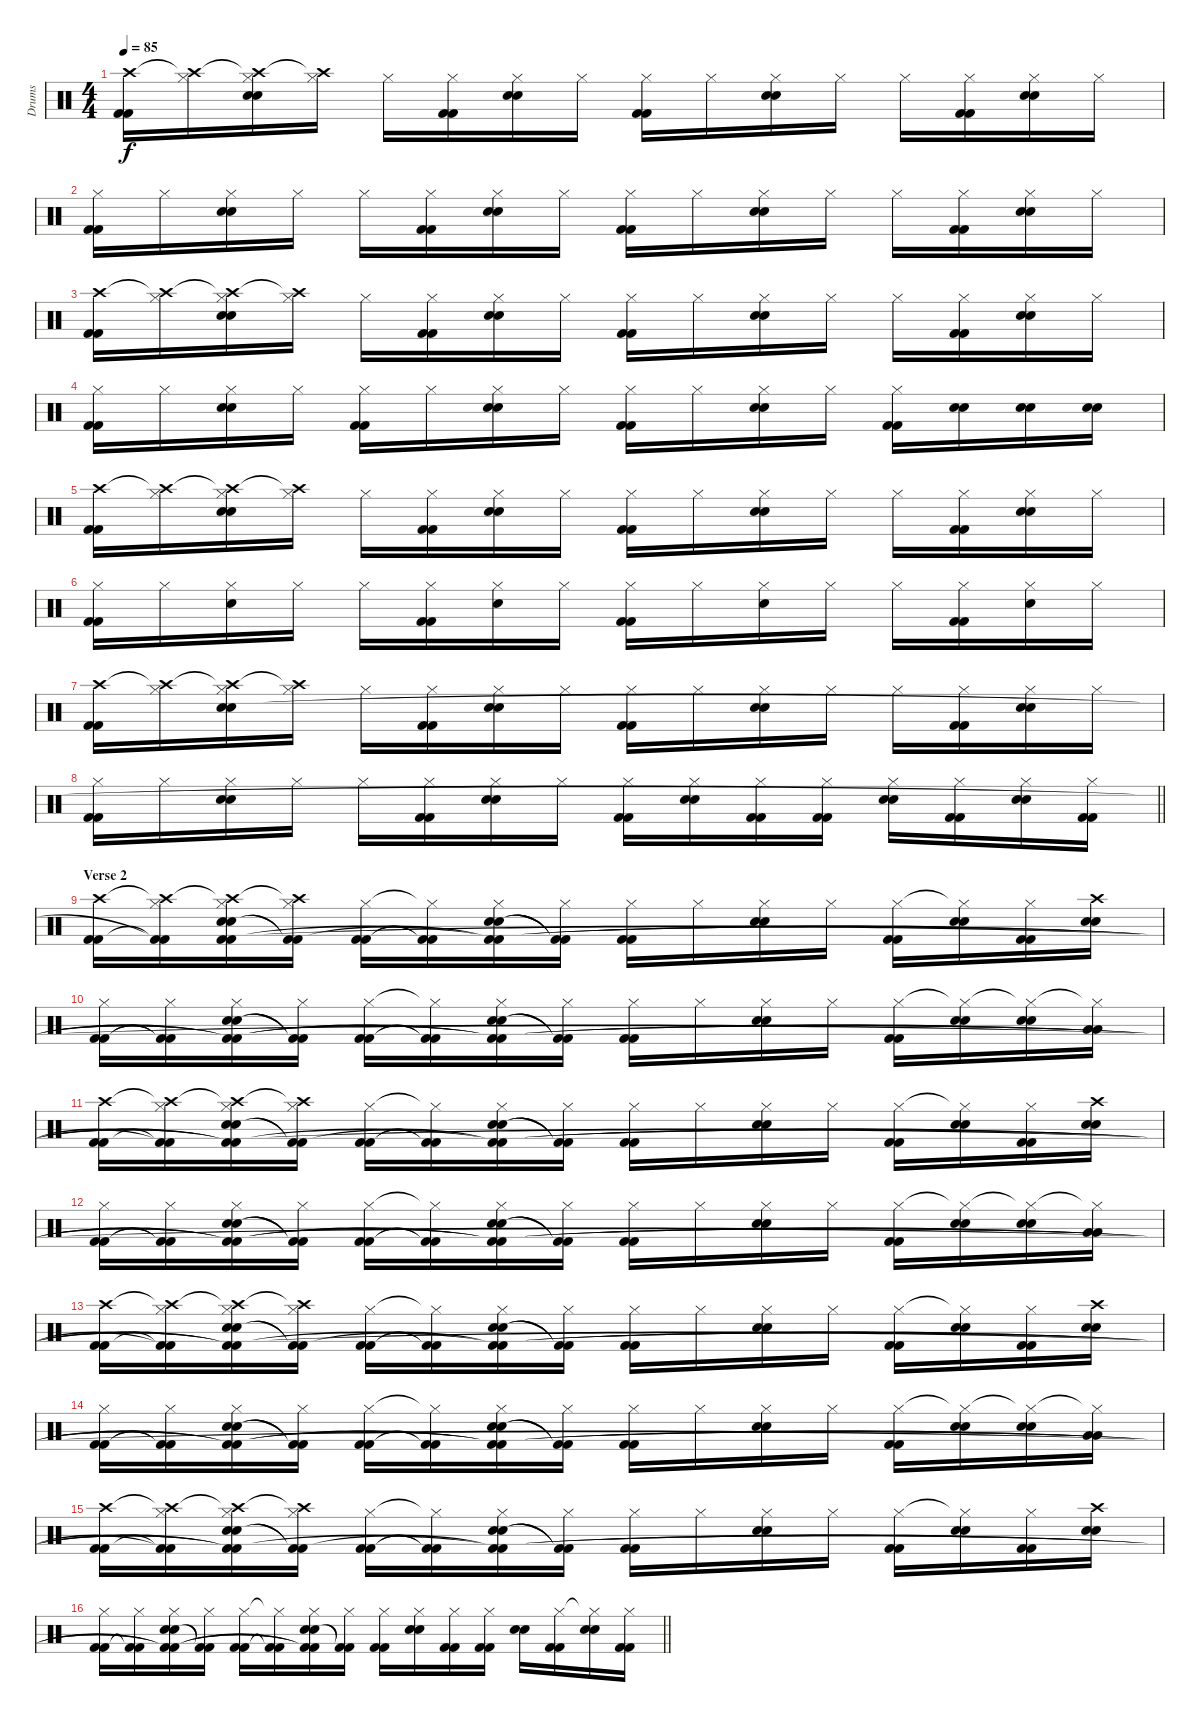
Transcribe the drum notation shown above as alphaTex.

\track ("Drums" "Drums") {instrument percussion}
\staff {score}
\articulation defaults
\ts (4 4)
\tempo 85
\clef neutral
\ks c
("Crash high (hit)" "Kick (hit) 2" "Kick (hit) 2").16{dy f} ("Crash high (hit)"{t} "Hi-Hat (closed)").16 ("Crash high (hit)"{t} "Hi-Hat (closed)" "Snare (hit) 2" "Snare (hit) 2").16 ("Crash high (hit)"{t} "Hi-Hat (closed)").16 "Hi-Hat (closed)".16 ("Hi-Hat (closed)" "Kick (hit) 2" "Kick (hit) 2").16 ("Hi-Hat (closed)" "Snare (hit) 2" "Snare (hit) 2").16 "Hi-Hat (closed)".16 ("Hi-Hat (closed)" "Kick (hit) 2" "Kick (hit) 2").16 "Hi-Hat (closed)".16 ("Hi-Hat (closed)" "Snare (hit) 2" "Snare (hit) 2").16 "Hi-Hat (closed)".16 "Hi-Hat (closed)".16 ("Hi-Hat (closed)" "Kick (hit) 2" "Kick (hit) 2").16 ("Hi-Hat (closed)" "Snare (hit) 2" "Snare (hit) 2").16 "Hi-Hat (closed)".16 |
("Hi-Hat (closed)" "Kick (hit) 2" "Kick (hit) 2").16 "Hi-Hat (closed)".16 ("Hi-Hat (closed)" "Snare (hit) 2" "Snare (hit) 2").16 "Hi-Hat (closed)".16 "Hi-Hat (closed)".16 ("Hi-Hat (closed)" "Kick (hit) 2" "Kick (hit) 2").16 ("Hi-Hat (closed)" "Snare (hit) 2" "Snare (hit) 2").16 "Hi-Hat (closed)".16 ("Hi-Hat (closed)" "Kick (hit) 2" "Kick (hit) 2").16 "Hi-Hat (closed)".16 ("Hi-Hat (closed)" "Snare (hit) 2" "Snare (hit) 2").16 "Hi-Hat (closed)".16 "Hi-Hat (closed)".16 ("Hi-Hat (closed)" "Kick (hit) 2" "Kick (hit) 2").16 ("Hi-Hat (closed)" "Snare (hit) 2" "Snare (hit) 2").16 "Hi-Hat (closed)".16 |
("Crash high (hit)" "Kick (hit) 2" "Kick (hit) 2").16 ("Crash high (hit)"{t} "Hi-Hat (closed)").16 ("Crash high (hit)"{t} "Hi-Hat (closed)" "Snare (hit) 2" "Snare (hit) 2").16 ("Crash high (hit)"{t} "Hi-Hat (closed)").16 "Hi-Hat (closed)".16 ("Hi-Hat (closed)" "Kick (hit) 2" "Kick (hit) 2").16 ("Hi-Hat (closed)" "Snare (hit) 2" "Snare (hit) 2").16 "Hi-Hat (closed)".16 ("Hi-Hat (closed)" "Kick (hit) 2" "Kick (hit) 2").16 "Hi-Hat (closed)".16 ("Hi-Hat (closed)" "Snare (hit) 2" "Snare (hit) 2").16 "Hi-Hat (closed)".16 "Hi-Hat (closed)".16 ("Hi-Hat (closed)" "Kick (hit) 2" "Kick (hit) 2").16 ("Hi-Hat (closed)" "Snare (hit) 2" "Snare (hit) 2").16 "Hi-Hat (closed)".16 |
("Hi-Hat (closed)" "Kick (hit) 2" "Kick (hit) 2").16 "Hi-Hat (closed)".16 ("Hi-Hat (closed)" "Snare (hit) 2" "Snare (hit) 2").16 "Hi-Hat (closed)".16 ("Hi-Hat (closed)" "Kick (hit) 2" "Kick (hit) 2").16 "Hi-Hat (closed)".16 ("Hi-Hat (closed)" "Snare (hit) 2" "Snare (hit) 2").16 "Hi-Hat (closed)".16 ("Hi-Hat (closed)" "Kick (hit) 2" "Kick (hit) 2").16 "Hi-Hat (closed)".16 ("Hi-Hat (closed)" "Snare (hit) 2" "Snare (hit) 2").16 "Hi-Hat (closed)".16 ("Hi-Hat (closed)" "Kick (hit) 2" "Kick (hit) 2").16 ("Snare (hit) 2" "Snare (hit) 2").16 ("Snare (hit) 2" "Snare (hit) 2").16 ("Snare (hit) 2" "Snare (hit) 2").16 |
("Crash high (hit)" "Kick (hit) 2" "Kick (hit) 2").16 ("Crash high (hit)"{t} "Hi-Hat (closed)").16 ("Crash high (hit)"{t} "Hi-Hat (closed)" "Snare (hit) 2" "Snare (hit) 2").16 ("Crash high (hit)"{t} "Hi-Hat (closed)").16 "Hi-Hat (closed)".16 ("Hi-Hat (closed)" "Kick (hit) 2" "Kick (hit) 2").16 ("Hi-Hat (closed)" "Snare (hit) 2" "Snare (hit) 2").16 "Hi-Hat (closed)".16 ("Hi-Hat (closed)" "Kick (hit) 2" "Kick (hit) 2").16 "Hi-Hat (closed)".16 ("Hi-Hat (closed)" "Snare (hit) 2" "Snare (hit) 2").16 "Hi-Hat (closed)".16 "Hi-Hat (closed)".16 ("Hi-Hat (closed)" "Kick (hit) 2" "Kick (hit) 2").16 ("Hi-Hat (closed)" "Snare (hit) 2" "Snare (hit) 2").16 "Hi-Hat (closed)".16 |
("Hi-Hat (closed)" "Kick (hit) 2" "Kick (hit) 2").16 "Hi-Hat (closed)".16 ("Hi-Hat (closed)" "Snare (hit) 2").16 "Hi-Hat (closed)".16 "Hi-Hat (closed)".16 ("Hi-Hat (closed)" "Kick (hit) 2" "Kick (hit) 2").16 ("Hi-Hat (closed)" "Snare (hit) 2").16 "Hi-Hat (closed)".16 ("Hi-Hat (closed)" "Kick (hit) 2" "Kick (hit) 2").16 "Hi-Hat (closed)".16 ("Hi-Hat (closed)" "Snare (hit) 2").16 "Hi-Hat (closed)".16 "Hi-Hat (closed)".16 ("Hi-Hat (closed)" "Kick (hit) 2" "Kick (hit) 2").16 ("Hi-Hat (closed)" "Snare (hit) 2").16 "Hi-Hat (closed)".16 |
("Crash high (hit)" "Kick (hit) 2" "Kick (hit) 2").16 ("Crash high (hit)"{t} "Hi-Hat (closed)").16 ("Crash high (hit)"{t} "Hi-Hat (closed)" "Snare (hit) 2" "Snare (hit) 2").16 ("Crash high (hit)"{t} "Hi-Hat (closed)").16 "Hi-Hat (closed)".16 ("Hi-Hat (closed)" "Kick (hit) 2" "Kick (hit) 2").16 ("Hi-Hat (closed)" "Snare (hit) 2" "Snare (hit) 2").16 "Hi-Hat (closed)".16 ("Hi-Hat (closed)" "Kick (hit) 2" "Kick (hit) 2").16 "Hi-Hat (closed)".16 ("Hi-Hat (closed)" "Snare (hit) 2" "Snare (hit) 2").16 "Hi-Hat (closed)".16 "Hi-Hat (closed)".16 ("Hi-Hat (closed)" "Kick (hit) 2" "Kick (hit) 2").16 ("Hi-Hat (closed)" "Snare (hit) 2" "Snare (hit) 2").16 "Hi-Hat (closed)".16 |
\barLineRight lightlight
("Hi-Hat (closed)" "Kick (hit) 2" "Kick (hit) 2").16 "Hi-Hat (closed)".16 ("Hi-Hat (closed)" "Snare (hit) 2" "Snare (hit) 2").16 "Hi-Hat (closed)".16 "Hi-Hat (closed)".16 ("Hi-Hat (closed)" "Kick (hit) 2" "Kick (hit) 2").16 ("Hi-Hat (closed)" "Snare (hit) 2" "Snare (hit) 2").16 "Hi-Hat (closed)".16 ("Hi-Hat (closed)" "Kick (hit) 2" "Kick (hit) 2").16 ("Hi-Hat (closed)" "Snare (hit) 2" "Snare (hit) 2").16 ("Hi-Hat (closed)" "Kick (hit) 2" "Kick (hit) 2").16 ("Hi-Hat (closed)" "Kick (hit) 2" "Kick (hit) 2").16 ("Hi-Hat (closed)" "Snare (hit) 2" "Snare (hit) 2").16 ("Hi-Hat (closed)" "Kick (hit) 2" "Kick (hit) 2").16 ("Hi-Hat (closed)" "Snare (hit) 2" "Snare (hit) 2").16 ("Hi-Hat (closed)" "Kick (hit) 2" "Kick (hit) 2").16 |
\section ("" "Verse 2")
("Crash high (hit)" "Kick (hit) 2" "Kick (hit) 2").16 ("Crash high (hit)"{t} "Hi-Hat (closed)" "Kick (hit) 2"{t} "Kick (hit) 2"{t}).16 ("Crash high (hit)"{t} "Hi-Hat (closed)" "Snare (hit) 2" "Snare (hit) 2" "Kick (hit) 2" "Kick (hit) 2").16 ("Crash high (hit)"{t} "Hi-Hat (closed)" "Kick (hit) 2"{t} "Kick (hit) 2"{t}).16 ("Hi-Hat (closed)" "Kick (hit) 2" "Kick (hit) 2").16 ("Hi-Hat (closed)"{t} "Kick (hit) 2"{t} "Kick (hit) 2"{t}).16 ("Hi-Hat (closed)" "Snare (hit) 2" "Snare (hit) 2" "Kick (hit) 2"{t} "Kick (hit) 2"{t}).16 ("Hi-Hat (closed)" "Kick (hit) 2"{t} "Kick (hit) 2"{t}).16 ("Hi-Hat (closed)" "Kick (hit) 2" "Kick (hit) 2").16 "Hi-Hat (closed)".16 ("Hi-Hat (closed)" "Snare (hit) 2" "Snare (hit) 2").16 "Hi-Hat (closed)".16 ("Hi-Hat (closed)" "Kick (hit) 2" "Kick (hit) 2").16 ("Hi-Hat (closed)"{t} "Snare (hit) 2" "Snare (hit) 2").16 ("Hi-Hat (closed)" "Kick (hit) 2" "Kick (hit) 2").16 ("Crash high (hit)" "Snare (hit) 2" "Snare (hit) 2").16 |
("Hi-Hat (closed)" "Kick (hit) 2" "Kick (hit) 2").16 ("Hi-Hat (closed)" "Kick (hit) 2"{t} "Kick (hit) 2"{t}).16 ("Hi-Hat (closed)" "Snare (hit) 2" "Snare (hit) 2" "Kick (hit) 2"{t} "Kick (hit) 2"{t}).16 ("Hi-Hat (closed)" "Kick (hit) 2"{t} "Kick (hit) 2"{t}).16 ("Hi-Hat (closed)" "Kick (hit) 2" "Kick (hit) 2").16 ("Hi-Hat (closed)"{t} "Kick (hit) 2"{t} "Kick (hit) 2"{t}).16 ("Hi-Hat (closed)" "Snare (hit) 2" "Snare (hit) 2" "Kick (hit) 2"{t} "Kick (hit) 2"{t}).16 ("Hi-Hat (closed)" "Kick (hit) 2"{t} "Kick (hit) 2"{t}).16 ("Hi-Hat (closed)" "Kick (hit) 2" "Kick (hit) 2").16 "Hi-Hat (closed)".16 ("Hi-Hat (closed)" "Snare (hit) 2" "Snare (hit) 2").16 "Hi-Hat (closed)".16 ("Hi-Hat (closed)" "Kick (hit) 2" "Kick (hit) 2").16 ("Hi-Hat (closed)"{t} "Snare (hit) 2" "Snare (hit) 2").16 ("Hi-Hat (closed)"{t} "Snare (hit) 2" "Snare (hit) 2").16 ("Hi-Hat (closed)"{t} "Low Tom (hit)" "Low Tom (hit)").16 |
("Crash high (hit)" "Kick (hit) 2" "Kick (hit) 2").16 ("Crash high (hit)"{t} "Hi-Hat (closed)" "Kick (hit) 2"{t} "Kick (hit) 2"{t}).16 ("Crash high (hit)"{t} "Hi-Hat (closed)" "Snare (hit) 2" "Snare (hit) 2" "Kick (hit) 2"{t} "Kick (hit) 2"{t}).16 ("Crash high (hit)"{t} "Hi-Hat (closed)" "Kick (hit) 2"{t} "Kick (hit) 2"{t}).16 ("Hi-Hat (closed)" "Kick (hit) 2" "Kick (hit) 2").16 ("Hi-Hat (closed)"{t} "Kick (hit) 2"{t} "Kick (hit) 2"{t}).16 ("Hi-Hat (closed)" "Snare (hit) 2" "Snare (hit) 2" "Kick (hit) 2"{t} "Kick (hit) 2"{t}).16 ("Hi-Hat (closed)" "Kick (hit) 2"{t} "Kick (hit) 2"{t}).16 ("Hi-Hat (closed)" "Kick (hit) 2" "Kick (hit) 2").16 "Hi-Hat (closed)".16 ("Hi-Hat (closed)" "Snare (hit) 2" "Snare (hit) 2").16 "Hi-Hat (closed)".16 ("Hi-Hat (closed)" "Kick (hit) 2" "Kick (hit) 2").16 ("Hi-Hat (closed)"{t} "Snare (hit) 2" "Snare (hit) 2").16 ("Hi-Hat (closed)" "Kick (hit) 2" "Kick (hit) 2").16 ("Crash high (hit)" "Snare (hit) 2" "Snare (hit) 2").16 |
("Hi-Hat (closed)" "Kick (hit) 2" "Kick (hit) 2").16 ("Hi-Hat (closed)" "Kick (hit) 2"{t} "Kick (hit) 2"{t}).16 ("Hi-Hat (closed)" "Snare (hit) 2" "Snare (hit) 2" "Kick (hit) 2"{t} "Kick (hit) 2"{t}).16 ("Hi-Hat (closed)" "Kick (hit) 2"{t} "Kick (hit) 2"{t}).16 ("Hi-Hat (closed)" "Kick (hit) 2" "Kick (hit) 2").16 ("Hi-Hat (closed)"{t} "Kick (hit) 2"{t} "Kick (hit) 2"{t}).16 ("Hi-Hat (closed)" "Snare (hit) 2" "Snare (hit) 2" "Kick (hit) 2"{t} "Kick (hit) 2"{t}).16 ("Hi-Hat (closed)" "Kick (hit) 2"{t} "Kick (hit) 2"{t}).16 ("Hi-Hat (closed)" "Kick (hit) 2" "Kick (hit) 2").16 "Hi-Hat (closed)".16 ("Hi-Hat (closed)" "Snare (hit) 2" "Snare (hit) 2").16 "Hi-Hat (closed)".16 ("Hi-Hat (closed)" "Kick (hit) 2" "Kick (hit) 2").16 ("Hi-Hat (closed)"{t} "Snare (hit) 2" "Snare (hit) 2").16 ("Hi-Hat (closed)"{t} "Snare (hit) 2" "Snare (hit) 2").16 ("Hi-Hat (closed)"{t} "Low Tom (hit)" "Low Tom (hit)").16 |
("Crash high (hit)" "Kick (hit) 2" "Kick (hit) 2").16 ("Crash high (hit)"{t} "Hi-Hat (closed)" "Kick (hit) 2"{t} "Kick (hit) 2"{t}).16 ("Crash high (hit)"{t} "Hi-Hat (closed)" "Snare (hit) 2" "Snare (hit) 2" "Kick (hit) 2"{t} "Kick (hit) 2"{t}).16 ("Crash high (hit)"{t} "Hi-Hat (closed)" "Kick (hit) 2"{t} "Kick (hit) 2"{t}).16 ("Hi-Hat (closed)" "Kick (hit) 2" "Kick (hit) 2").16 ("Hi-Hat (closed)"{t} "Kick (hit) 2"{t} "Kick (hit) 2"{t}).16 ("Hi-Hat (closed)" "Snare (hit) 2" "Snare (hit) 2" "Kick (hit) 2"{t} "Kick (hit) 2"{t}).16 ("Hi-Hat (closed)" "Kick (hit) 2"{t} "Kick (hit) 2"{t}).16 ("Hi-Hat (closed)" "Kick (hit) 2" "Kick (hit) 2").16 "Hi-Hat (closed)".16 ("Hi-Hat (closed)" "Snare (hit) 2" "Snare (hit) 2").16 "Hi-Hat (closed)".16 ("Hi-Hat (closed)" "Kick (hit) 2" "Kick (hit) 2").16 ("Hi-Hat (closed)"{t} "Snare (hit) 2" "Snare (hit) 2").16 ("Hi-Hat (closed)" "Kick (hit) 2" "Kick (hit) 2").16 ("Crash high (hit)" "Snare (hit) 2" "Snare (hit) 2").16 |
("Hi-Hat (closed)" "Kick (hit) 2" "Kick (hit) 2").16 ("Hi-Hat (closed)" "Kick (hit) 2"{t} "Kick (hit) 2"{t}).16 ("Hi-Hat (closed)" "Snare (hit) 2" "Snare (hit) 2" "Kick (hit) 2"{t} "Kick (hit) 2"{t}).16 ("Hi-Hat (closed)" "Kick (hit) 2"{t} "Kick (hit) 2"{t}).16 ("Hi-Hat (closed)" "Kick (hit) 2" "Kick (hit) 2").16 ("Hi-Hat (closed)"{t} "Kick (hit) 2"{t} "Kick (hit) 2"{t}).16 ("Hi-Hat (closed)" "Snare (hit) 2" "Snare (hit) 2" "Kick (hit) 2"{t} "Kick (hit) 2"{t}).16 ("Hi-Hat (closed)" "Kick (hit) 2"{t} "Kick (hit) 2"{t}).16 ("Hi-Hat (closed)" "Kick (hit) 2" "Kick (hit) 2").16 "Hi-Hat (closed)".16 ("Hi-Hat (closed)" "Snare (hit) 2" "Snare (hit) 2").16 "Hi-Hat (closed)".16 ("Hi-Hat (closed)" "Kick (hit) 2" "Kick (hit) 2").16 ("Hi-Hat (closed)"{t} "Snare (hit) 2" "Snare (hit) 2").16 ("Hi-Hat (closed)"{t} "Snare (hit) 2" "Snare (hit) 2").16 ("Hi-Hat (closed)"{t} "Low Tom (hit)" "Low Tom (hit)").16 |
("Crash high (hit)" "Kick (hit) 2" "Kick (hit) 2").16 ("Crash high (hit)"{t} "Hi-Hat (closed)" "Kick (hit) 2"{t} "Kick (hit) 2"{t}).16 ("Crash high (hit)"{t} "Hi-Hat (closed)" "Snare (hit) 2" "Snare (hit) 2" "Kick (hit) 2"{t} "Kick (hit) 2"{t}).16 ("Crash high (hit)"{t} "Hi-Hat (closed)" "Kick (hit) 2"{t} "Kick (hit) 2"{t}).16 ("Hi-Hat (closed)" "Kick (hit) 2" "Kick (hit) 2").16 ("Hi-Hat (closed)"{t} "Kick (hit) 2"{t} "Kick (hit) 2"{t}).16 ("Hi-Hat (closed)" "Snare (hit) 2" "Snare (hit) 2" "Kick (hit) 2"{t} "Kick (hit) 2"{t}).16 ("Hi-Hat (closed)" "Kick (hit) 2"{t} "Kick (hit) 2"{t}).16 ("Hi-Hat (closed)" "Kick (hit) 2" "Kick (hit) 2").16 "Hi-Hat (closed)".16 ("Hi-Hat (closed)" "Snare (hit) 2" "Snare (hit) 2").16 "Hi-Hat (closed)".16 ("Hi-Hat (closed)" "Kick (hit) 2" "Kick (hit) 2").16 ("Hi-Hat (closed)"{t} "Snare (hit) 2" "Snare (hit) 2").16 ("Hi-Hat (closed)" "Kick (hit) 2" "Kick (hit) 2").16 ("Crash high (hit)" "Snare (hit) 2" "Snare (hit) 2").16 |
\barLineRight lightlight
("Hi-Hat (closed)" "Kick (hit) 2" "Kick (hit) 2").16 ("Hi-Hat (closed)" "Kick (hit) 2"{t} "Kick (hit) 2"{t}).16 ("Hi-Hat (closed)" "Snare (hit) 2" "Snare (hit) 2" "Kick (hit) 2"{t} "Kick (hit) 2"{t}).16 ("Hi-Hat (closed)" "Kick (hit) 2"{t} "Kick (hit) 2"{t}).16 ("Hi-Hat (closed)" "Kick (hit) 2" "Kick (hit) 2").16 ("Hi-Hat (closed)"{t} "Kick (hit) 2"{t} "Kick (hit) 2"{t}).16 ("Hi-Hat (closed)" "Snare (hit) 2" "Snare (hit) 2" "Kick (hit) 2"{t} "Kick (hit) 2"{t}).16 ("Hi-Hat (closed)" "Kick (hit) 2"{t} "Kick (hit) 2"{t}).16 ("Hi-Hat (closed)" "Kick (hit) 2" "Kick (hit) 2").16 ("Hi-Hat (closed)" "Snare (hit) 2" "Snare (hit) 2").16 ("Hi-Hat (closed)" "Kick (hit) 2" "Kick (hit) 2").16 ("Hi-Hat (closed)" "Kick (hit) 2" "Kick (hit) 2").16 ("Snare (hit) 2" "Snare (hit) 2").16 ("Hi-Hat (closed)" "Kick (hit) 2" "Kick (hit) 2").16 ("Hi-Hat (closed)"{t} "Snare (hit) 2" "Snare (hit) 2").16 ("Hi-Hat (closed)" "Kick (hit) 2" "Kick (hit) 2").16
